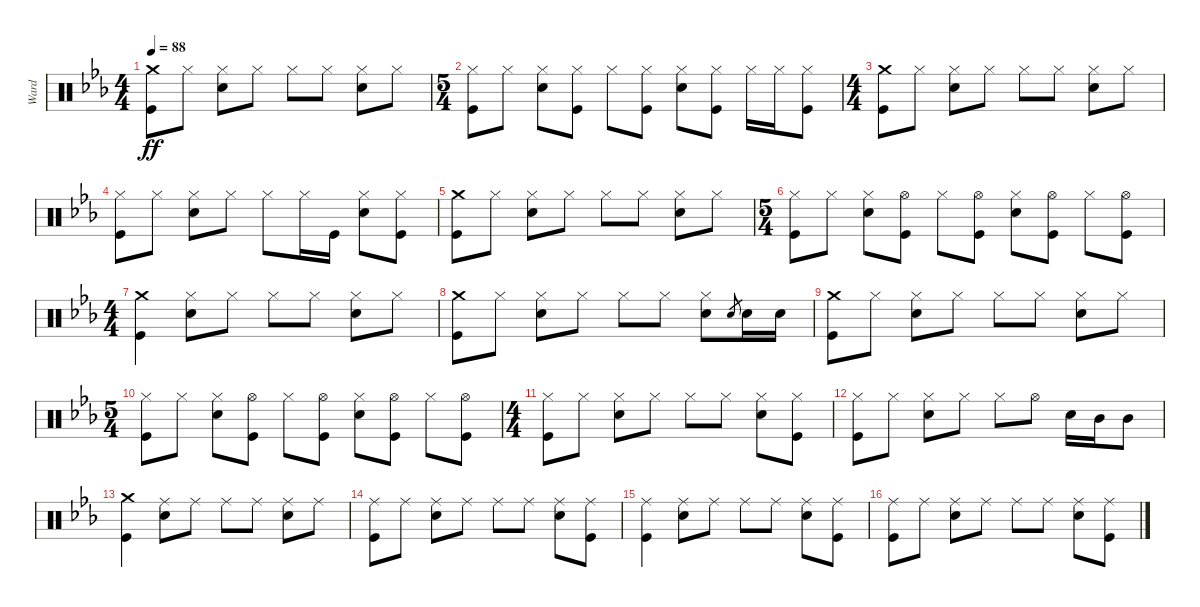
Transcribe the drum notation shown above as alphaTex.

\track ("Ward" "Ward") {instrument percussion}
\staff {score}
\articulation defaults
\ts (4 4)
\tempo 88
\clef neutral
\ks cminor
("Crash medium (hit)" "Kick (hit)").8{dy ff} "Hi-Hat (closed)".8 ("Hi-Hat (closed)" "Snare (hit) 2").8 "Hi-Hat (closed)".8 "Hi-Hat (closed)".8 "Hi-Hat (closed)".8 ("Hi-Hat (closed)" "Snare (hit) 2").8 "Hi-Hat (closed)".8 |
\ts (5 4)
("Hi-Hat (closed)" "Kick (hit)").8 "Hi-Hat (closed)".8 ("Hi-Hat (closed)" "Snare (hit) 2").8 ("Hi-Hat (closed)" "Kick (hit)").8 "Hi-Hat (closed)".8 ("Hi-Hat (closed)" "Kick (hit)").8 ("Hi-Hat (closed)" "Snare (hit) 2").8 ("Hi-Hat (closed)" "Kick (hit)").8 "Hi-Hat (closed)".16 "Hi-Hat (closed)".16 ("Hi-Hat (closed)" "Kick (hit)").8 |
\ts (4 4)
("Crash medium (hit)" "Kick (hit)").8 "Hi-Hat (closed)".8 ("Hi-Hat (closed)" "Snare (hit) 2").8 "Hi-Hat (closed)".8 "Hi-Hat (closed)".8 "Hi-Hat (closed)".8 ("Hi-Hat (closed)" "Snare (hit) 2").8 "Hi-Hat (closed)".8 |
("Hi-Hat (closed)" "Kick (hit)").8 "Hi-Hat (closed)".8 ("Hi-Hat (closed)" "Snare (hit) 2").8 "Hi-Hat (closed)".8 "Hi-Hat (closed)".8 "Hi-Hat (closed)".16 "Kick (hit)".16 ("Hi-Hat (closed)" "Snare (hit) 2").8 ("Hi-Hat (closed)" "Kick (hit)").8 |
("Crash medium (hit)" "Kick (hit)").8 "Hi-Hat (closed)".8 ("Hi-Hat (closed)" "Snare (hit) 2").8 "Hi-Hat (closed)".8 "Hi-Hat (closed)".8 "Hi-Hat (closed)".8 ("Hi-Hat (closed)" "Snare (hit) 2").8 "Hi-Hat (closed)".8 |
\ts (5 4)
("Hi-Hat (closed)" "Kick (hit)").8 "Hi-Hat (closed)".8 ("Hi-Hat (closed)" "Snare (hit) 2").8 ("Hi-Hat (open)" "Kick (hit)").8 "Hi-Hat (closed)".8 ("Hi-Hat (open)" "Kick (hit)").8 ("Hi-Hat (closed)" "Snare (hit) 2").8 ("Hi-Hat (open)" "Kick (hit)").8 "Hi-Hat (closed)".8 ("Hi-Hat (open)" "Kick (hit)").8 |
\ts (4 4)
("Crash medium (hit)" "Kick (hit)").4 ("Hi-Hat (closed)" "Snare (hit) 2").8 "Hi-Hat (closed)".8 "Hi-Hat (closed)".8 "Hi-Hat (closed)".8 ("Hi-Hat (closed)" "Snare (hit) 2").8 "Hi-Hat (closed)".8 |
("Crash medium (hit)" "Kick (hit)").8 "Hi-Hat (closed)".8 ("Hi-Hat (closed)" "Snare (hit) 2").8 "Hi-Hat (closed)".8 "Hi-Hat (closed)".8 "Hi-Hat (closed)".8 ("Hi-Hat (closed)" "Snare (hit) 2").8 "Snare (hit) 2".8{gr} "Snare (hit) 2".16 "Snare (hit) 2".16 |
("Crash medium (hit)" "Kick (hit)").8 "Hi-Hat (closed)".8 ("Hi-Hat (closed)" "Snare (hit) 2").8 "Hi-Hat (closed)".8 "Hi-Hat (closed)".8 "Hi-Hat (closed)".8 ("Hi-Hat (closed)" "Snare (hit) 2").8 "Hi-Hat (closed)".8 |
\ts (5 4)
("Hi-Hat (closed)" "Kick (hit)").8 "Hi-Hat (closed)".8 ("Hi-Hat (closed)" "Snare (hit) 2").8 ("Hi-Hat (open)" "Kick (hit)").8 "Hi-Hat (closed)".8 ("Hi-Hat (open)" "Kick (hit)").8 ("Hi-Hat (closed)" "Snare (hit) 2").8 ("Hi-Hat (open)" "Kick (hit)").8 "Hi-Hat (closed)".8 ("Hi-Hat (open)" "Kick (hit)").8 |
\ts (4 4)
("Hi-Hat (closed)" "Kick (hit)").8 "Hi-Hat (closed)".8 ("Hi-Hat (closed)" "Snare (hit) 2").8 "Hi-Hat (closed)".8 "Hi-Hat (closed)".8 "Hi-Hat (closed)".8 ("Hi-Hat (closed)" "Snare (hit) 2").8 ("Hi-Hat (closed)" "Kick (hit)").8 |
("Hi-Hat (closed)" "Kick (hit)").8 "Hi-Hat (closed)".8 ("Hi-Hat (closed)" "Snare (hit) 2").8 "Hi-Hat (closed)".8 "Hi-Hat (closed)".8 "Hi-Hat (open)".8 "Snare (hit) 2".16 "Mid Tom (hit)".16 "Mid Tom (hit)".8 |
("Crash medium (hit)" "Kick (hit)").4 ("Ride (middle)" "Snare (hit) 2").8 "Ride (middle)".8 "Ride (middle)".8 "Ride (middle)".8 ("Ride (middle)" "Snare (hit) 2").8 "Ride (middle)".8 |
("Ride (middle)" "Kick (hit)").8 "Ride (middle)".8 ("Ride (middle)" "Snare (hit) 2").8 "Ride (middle)".8 "Ride (middle)".8 "Ride (middle)".8 ("Ride (middle)" "Snare (hit) 2").8 ("Ride (middle)" "Kick (hit)").8 |
("Ride (middle)" "Kick (hit)").4 ("Ride (middle)" "Snare (hit) 2").8 "Ride (middle)".8 "Ride (middle)".8 "Ride (middle)".8 ("Ride (middle)" "Snare (hit) 2").8 ("Ride (middle)" "Kick (hit)").8 |
("Ride (middle)" "Kick (hit)").8 "Ride (middle)".8 ("Ride (middle)" "Snare (hit) 2").8 "Ride (middle)".8 "Ride (middle)".8 "Ride (middle)".8 ("Ride (middle)" "Snare (hit) 2").8 ("Ride (middle)" "Kick (hit)").8
